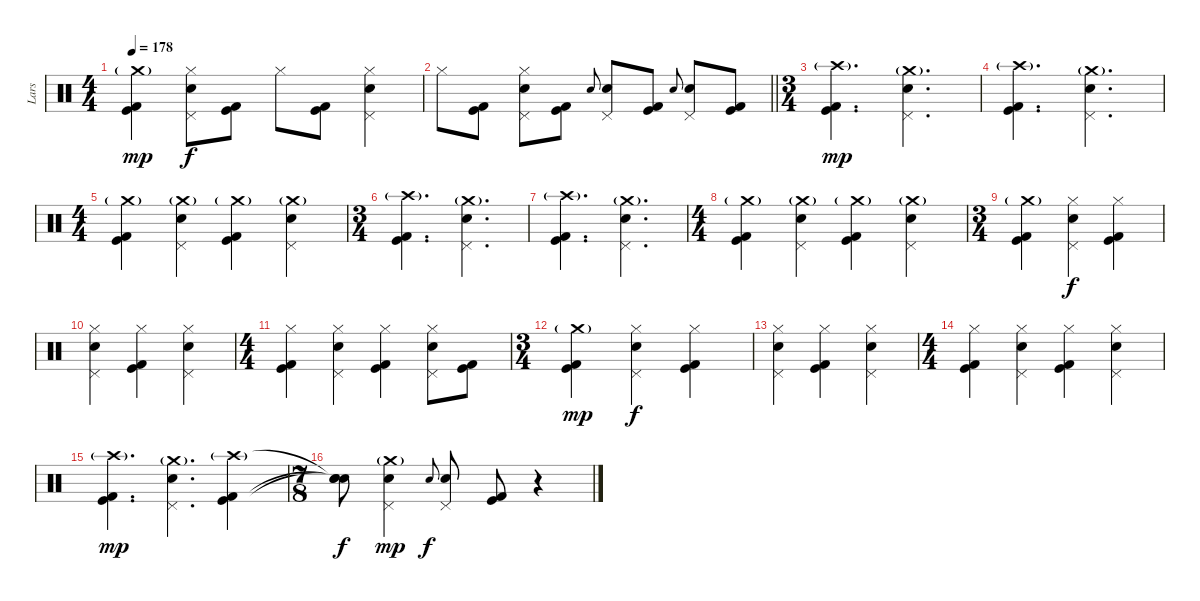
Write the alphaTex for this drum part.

\track ("Lars" "Lars") {instrument percussion}
\staff {score}
\articulation defaults
\ts (4 4)
\tempo 178
\clef neutral
\ks c
("Crash medium (hit)"{g} "Kick (hit)" "Kick (hit) 2").4{dy mp} ("Hi-Hat (closed)" "Pedal Hi-Hat (hit)" "Electric Snare (hit)").8{dy f} ("Kick (hit)" "Kick (hit) 2").8 "Hi-Hat (closed)".8 ("Kick (hit)" "Kick (hit) 2").8 ("Hi-Hat (closed)" "Pedal Hi-Hat (hit)" "Electric Snare (hit)").4 |
\barLineRight lightlight "Hi-Hat (closed)".8
("Kick (hit)" "Kick (hit) 2").8 ("Hi-Hat (closed)" "Pedal Hi-Hat (hit)" "Electric Snare (hit)").8 ("Kick (hit)" "Kick (hit) 2").8 "Electric Snare (hit)".8{gr onbeat} ("Pedal Hi-Hat (hit)" "Electric Snare (hit)").8 ("Kick (hit)" "Kick (hit) 2").8 "Electric Snare (hit)".8{gr onbeat} ("Pedal Hi-Hat (hit)" "Electric Snare (hit)").8 ("Kick (hit)" "Kick (hit) 2").8 |
\ts (3 4)
\section ("" "")
("Crash high (hit)"{g} "Kick (hit)" "Kick (hit) 2").4{d dy mp} ("Crash medium (hit)"{g} "Pedal Hi-Hat (hit)" "Electric Snare (hit)").4{d} |
("Crash high (hit)"{g} "Kick (hit)" "Kick (hit) 2").4{d} ("Crash medium (hit)"{g} "Pedal Hi-Hat (hit)" "Electric Snare (hit)").4{d} |
\ts (4 4)
("Crash medium (hit)"{g} "Kick (hit)" "Kick (hit) 2").4 ("Crash medium (hit)"{g} "Pedal Hi-Hat (hit)" "Electric Snare (hit)").4 ("Crash medium (hit)"{g} "Kick (hit)" "Kick (hit) 2").4 ("Crash medium (hit)"{g} "Pedal Hi-Hat (hit)" "Electric Snare (hit)").4 |
\ts (3 4)
("Crash high (hit)"{g} "Kick (hit)" "Kick (hit) 2").4{d} ("Crash medium (hit)"{g} "Pedal Hi-Hat (hit)" "Electric Snare (hit)").4{d} |
("Crash high (hit)"{g} "Kick (hit)" "Kick (hit) 2").4{d} ("Crash medium (hit)"{g} "Pedal Hi-Hat (hit)" "Electric Snare (hit)").4{d} |
\ts (4 4)
("Crash medium (hit)"{g} "Kick (hit)" "Kick (hit) 2").4 ("Crash medium (hit)"{g} "Pedal Hi-Hat (hit)" "Electric Snare (hit)").4 ("Crash medium (hit)"{g} "Kick (hit)" "Kick (hit) 2").4 ("Crash medium (hit)"{g} "Pedal Hi-Hat (hit)" "Electric Snare (hit)").4 |
\ts (3 4)
("Crash medium (hit)"{g} "Kick (hit)" "Kick (hit) 2").4 ("Hi-Hat (closed)" "Pedal Hi-Hat (hit)" "Electric Snare (hit)").4{dy f} ("Hi-Hat (closed)" "Kick (hit)" "Kick (hit) 2").4 |
("Hi-Hat (closed)" "Pedal Hi-Hat (hit)" "Electric Snare (hit)").4 ("Hi-Hat (closed)" "Kick (hit)" "Kick (hit) 2").4 ("Hi-Hat (closed)" "Pedal Hi-Hat (hit)" "Electric Snare (hit)").4 |
\ts (4 4)
("Hi-Hat (closed)" "Kick (hit)" "Kick (hit) 2").4 ("Hi-Hat (closed)" "Pedal Hi-Hat (hit)" "Electric Snare (hit)").4 ("Hi-Hat (closed)" "Kick (hit)" "Kick (hit) 2").4 ("Hi-Hat (closed)" "Pedal Hi-Hat (hit)" "Electric Snare (hit)").8 ("Kick (hit)" "Kick (hit) 2").8 |
\ts (3 4)
("Crash medium (hit)"{g} "Kick (hit)" "Kick (hit) 2").4{dy mp} ("Hi-Hat (closed)" "Pedal Hi-Hat (hit)" "Electric Snare (hit)").4{dy f} ("Hi-Hat (closed)" "Kick (hit)" "Kick (hit) 2").4 |
("Hi-Hat (closed)" "Pedal Hi-Hat (hit)" "Electric Snare (hit)").4 ("Hi-Hat (closed)" "Kick (hit)" "Kick (hit) 2").4 ("Hi-Hat (closed)" "Pedal Hi-Hat (hit)" "Electric Snare (hit)").4 |
\ts (4 4)
("Hi-Hat (closed)" "Kick (hit)" "Kick (hit) 2").4 ("Hi-Hat (closed)" "Pedal Hi-Hat (hit)" "Electric Snare (hit)").4 ("Hi-Hat (closed)" "Kick (hit)" "Kick (hit) 2").4 ("Hi-Hat (closed)" "Pedal Hi-Hat (hit)" "Electric Snare (hit)").4 |
("Crash high (hit)"{g} "Kick (hit)" "Kick (hit) 2").4{d dy mp} ("Crash medium (hit)"{g} "Pedal Hi-Hat (hit)" "Electric Snare (hit)").4{d} ("Crash high (hit)"{g} "Kick (hit)" "Kick (hit) 2").4 |
\ts (7 8)
("Snare (hit)"{t} "Snare (hit)"{t} "Snare (hit)"{t}).8{dy f} ("Crash medium (hit)"{g} "Pedal Hi-Hat (hit)" "Electric Snare (hit)").4{dy mp} "Electric Snare (hit)".8{gr onbeat dy f} ("Pedal Hi-Hat (hit)" "Electric Snare (hit)").8 ("Kick (hit)" "Kick (hit) 2").8 r.4
